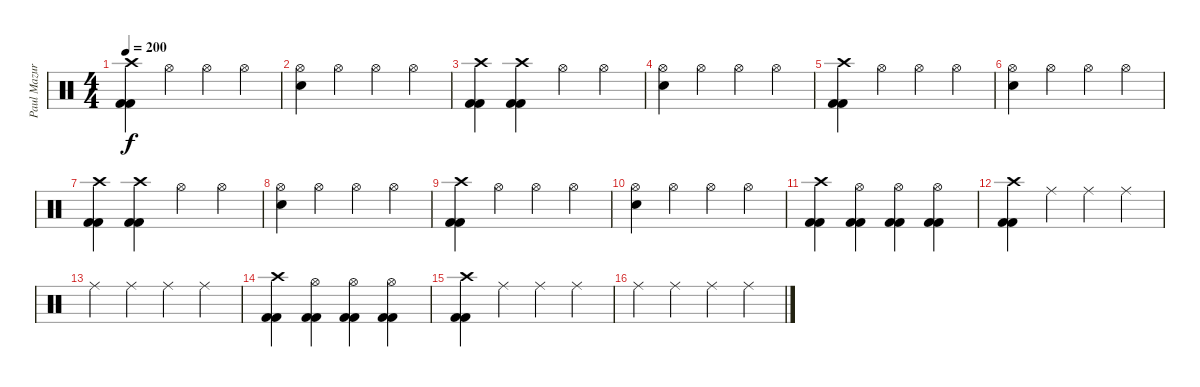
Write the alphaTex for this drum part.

\track ("Paul Mazurkiewicz" "Paul Mazur") {instrument percussion}
\staff {score}
\articulation defaults
\ts (4 4)
\tempo 200
\clef neutral
\ks c
("Crash high (hit)" "Kick (hit) 2" "Kick (hit) 2").4{dy f} "Hi-Hat (open)".4 "Hi-Hat (open)".4 "Hi-Hat (open)".4 |
("Hi-Hat (open)" "Electric Snare (hit)").4 "Hi-Hat (open)".4 "Hi-Hat (open)".4 "Hi-Hat (open)".4 |
("Crash high (hit)" "Kick (hit) 2" "Kick (hit) 2").4 ("Crash high (hit)" "Kick (hit) 2" "Kick (hit) 2").4 "Hi-Hat (open)".4 "Hi-Hat (open)".4 |
("Hi-Hat (open)" "Electric Snare (hit)").4 "Hi-Hat (open)".4 "Hi-Hat (open)".4 "Hi-Hat (open)".4 |
("Crash high (hit)" "Kick (hit) 2" "Kick (hit) 2").4 "Hi-Hat (open)".4 "Hi-Hat (open)".4 "Hi-Hat (open)".4 |
("Hi-Hat (open)" "Electric Snare (hit)").4 "Hi-Hat (open)".4 "Hi-Hat (open)".4 "Hi-Hat (open)".4 |
("Crash high (hit)" "Kick (hit) 2" "Kick (hit) 2").4 ("Crash high (hit)" "Kick (hit) 2" "Kick (hit) 2").4 "Hi-Hat (open)".4 "Hi-Hat (open)".4 |
("Hi-Hat (open)" "Electric Snare (hit)").4 "Hi-Hat (open)".4 "Hi-Hat (open)".4 "Hi-Hat (open)".4 |
("Crash high (hit)" "Kick (hit) 2" "Kick (hit) 2").4 "Hi-Hat (open)".4 "Hi-Hat (open)".4 "Hi-Hat (open)".4 |
("Hi-Hat (open)" "Electric Snare (hit)").4 "Hi-Hat (open)".4 "Hi-Hat (open)".4 "Hi-Hat (open)".4 |
("Crash high (hit)" "Kick (hit) 2" "Kick (hit) 2").4 ("Hi-Hat (open)" "Kick (hit) 2" "Kick (hit) 2").4 ("Hi-Hat (open)" "Kick (hit) 2" "Kick (hit) 2").4 ("Hi-Hat (open)" "Kick (hit) 2" "Kick (hit) 2").4 |
("Crash high (hit)" "Kick (hit) 2" "Kick (hit) 2").4 "Ride (middle)".4 "Ride (middle)".4 "Ride (middle)".4 |
"Ride (middle)".4 "Ride (middle)".4 "Ride (middle)".4 "Ride (middle)".4 |
("Crash high (hit)" "Kick (hit) 2" "Kick (hit) 2").4 ("Hi-Hat (open)" "Kick (hit) 2" "Kick (hit) 2").4 ("Hi-Hat (open)" "Kick (hit) 2" "Kick (hit) 2").4 ("Hi-Hat (open)" "Kick (hit) 2" "Kick (hit) 2").4 |
("Crash high (hit)" "Kick (hit) 2" "Kick (hit) 2").4 "Ride (middle)".4 "Ride (middle)".4 "Ride (middle)".4 |
"Ride (middle)".4 "Ride (middle)".4 "Ride (middle)".4 "Ride (middle)".4
